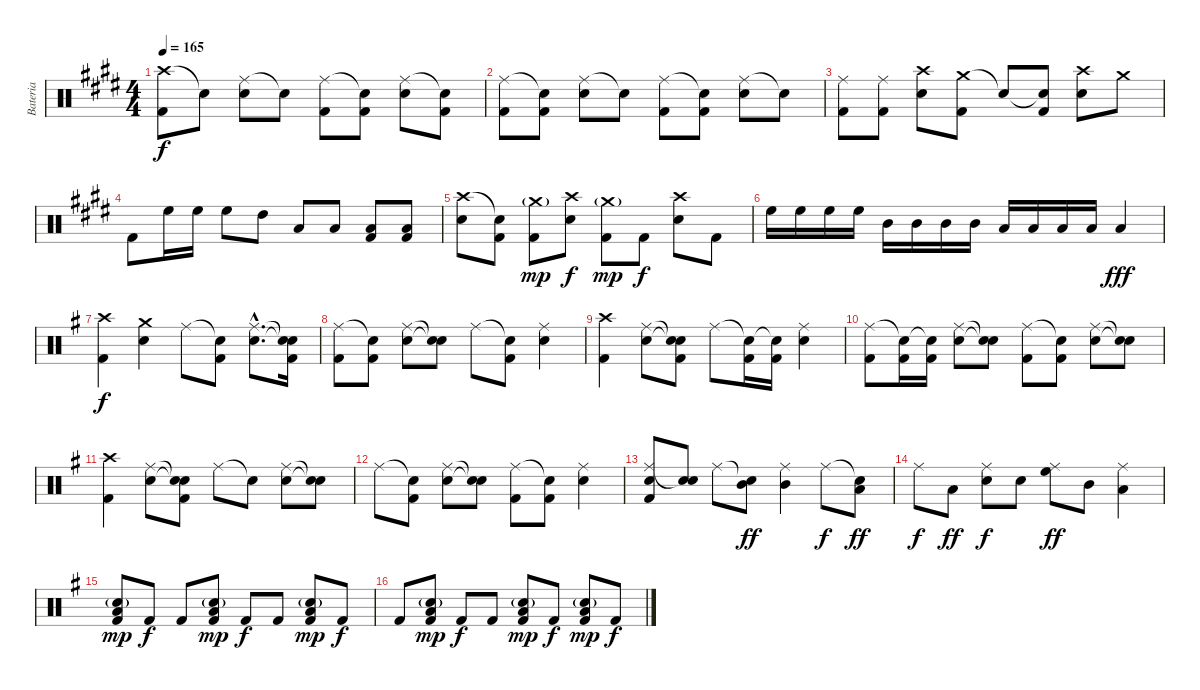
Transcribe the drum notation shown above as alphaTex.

\track ("Bateria" "Bateria") {instrument percussion}
\staff {score}
\articulation defaults
\ts (4 4)
\tempo 165
\clef neutral
\ks e
("Crash high (hit)" "Kick (hit) 2").8{dy f} "Snare (hit)"{t}.8 ("Ride (middle)" "Electric Snare (hit)").8 "Snare (hit)"{t}.8 ("Ride (middle)" "Kick (hit) 2").8 ("Snare (hit)"{t} "Kick (hit) 2").8 ("Ride (middle)" "Electric Snare (hit)").8 ("Snare (hit)"{t} "Kick (hit) 2").8 |
("Ride (middle)" "Kick (hit) 2").8 ("Snare (hit)"{t} "Kick (hit) 2").8 ("Ride (middle)" "Electric Snare (hit)").8 "Snare (hit)"{t}.8 ("Ride (middle)" "Kick (hit) 2").8 ("Snare (hit)"{t} "Kick (hit) 2").8 ("Ride (middle)" "Electric Snare (hit)").8 "Snare (hit)"{t}.8 |
("Ride (middle)" "Kick (hit) 2").8 ("Ride (middle)" "Kick (hit) 2").8 ("Crash high (hit)" "Electric Snare (hit)").8 ("Crash medium (hit)" "Kick (hit) 2").8 "Snare (hit)"{t}.8 ("Snare (hit)"{t} "Kick (hit) 2").8 ("Crash high (hit)" "Electric Snare (hit)").8 "Crash medium (hit)".8 |
"Kick (hit) 2".8 "High Floor Tom (hit)".16 "High Floor Tom (hit)".16 "High Floor Tom (hit)".8 "High Tom (hit)".8 "Low Tom (hit)".8 "Low Tom (hit)".8 ("Low Floor Tom (hit)" "Kick (hit) 2").8 ("Low Floor Tom (hit)" "Kick (hit) 2").8 |
("Crash high (hit)" "Electric Snare (hit)").8 ("Snare (hit)"{t} "Kick (hit) 2").8 ("Crash medium (hit)"{g} "Kick (hit) 2").8{dy mp} ("Crash high (hit)" "Electric Snare (hit)").8{dy f} ("Crash medium (hit)"{g} "Kick (hit) 2").8{dy mp} "Kick (hit) 2".8{dy f} ("Crash high (hit)" "Electric Snare (hit)").8 "Kick (hit) 2".8 |
"High Floor Tom (hit)".16 "High Floor Tom (hit)".16 "High Floor Tom (hit)".16 "High Floor Tom (hit)".16 "Mid Tom (hit)".16 "Mid Tom (hit)".16 "Mid Tom (hit)".16 "Mid Tom (hit)".16 "Low Tom (hit)".16 "Low Tom (hit)".16 "Low Tom (hit)".16 "Low Tom (hit)".16 "Low Floor Tom (hit)".4{dy fff} |
\ks g
("Crash high (hit)" "Kick (hit) 2").4{dy f} ("Crash medium (hit)" "Electric Snare (hit)").4 "Ride (middle)".8 ("Snare (hit)"{t} "Kick (hit) 2").8 ("Ride (middle)"{hac} "Electric Snare (hit)"{hac}).8{d} ("Snare (hit)"{t} "Snare (hit)"{t} "Kick (hit) 2").16 |
("Ride (middle)" "Kick (hit) 2").8 ("Snare (hit)"{t} "Kick (hit) 2").8 ("Ride (middle)" "Electric Snare (hit)").8 ("Snare (hit)"{t} "Snare (hit)"{t}).8 "Ride (middle)".8 ("Snare (hit)"{t} "Kick (hit) 2").8 ("Ride (middle)" "Electric Snare (hit)").4 |
("Crash high (hit)" "Kick (hit) 2").4 ("Ride (middle)" "Electric Snare (hit)").8 ("Snare (hit)"{t} "Snare (hit)"{t} "Kick (hit) 2").8 "Ride (middle)".8 ("Snare (hit)"{t} "Kick (hit) 2").16 ("Snare (hit)"{t} "Kick (hit) 2").16 ("Ride (middle)" "Electric Snare (hit)").4 |
("Ride (middle)" "Kick (hit) 2").8 ("Snare (hit)"{t} "Kick (hit) 2").16 ("Snare (hit)"{t} "Kick (hit) 2").16 ("Ride (middle)" "Electric Snare (hit)").8 ("Snare (hit)"{t} "Snare (hit)"{t}).8 ("Ride (middle)" "Kick (hit) 2").8 ("Snare (hit)"{t} "Kick (hit) 2").8 ("Ride (middle)" "Electric Snare (hit)").8 ("Snare (hit)"{t} "Snare (hit)"{t}).8 |
("Crash high (hit)" "Kick (hit) 2").4 ("Ride (middle)" "Electric Snare (hit)").8 ("Snare (hit)"{t} "Snare (hit)"{t} "Kick (hit) 2").8 "Ride (middle)".8 "Snare (hit)"{t}.8 ("Ride (middle)" "Electric Snare (hit)").8 ("Snare (hit)"{t} "Snare (hit)"{t}).8 |
"Ride (middle)".8 ("Snare (hit)"{t} "Kick (hit) 2").8 ("Ride (middle)" "Electric Snare (hit)").8 ("Snare (hit)"{t} "Snare (hit)"{t}).8 ("Ride (middle)" "Kick (hit) 2").8 ("Snare (hit)"{t} "Kick (hit) 2").8 ("Ride (middle)" "Electric Snare (hit)").4 |
("Ride (middle)" "Electric Snare (hit)" "Kick (hit) 2").8 ("Snare (hit)"{t} "Electric Snare (hit)").8 "Ride (middle)".8 ("Snare (hit)"{t} "Mid Tom (hit)").8{dy ff} ("Ride (middle)" "Mid Tom (hit)").4 "Ride (middle)".8{dy f} ("Snare (hit)"{t} "Low Tom (hit)").8{dy ff} |
"Ride (middle)".8{dy f} "Low Tom (hit)".8{dy ff} ("Ride (middle)" "Electric Snare (hit)").8{dy f} "Electric Snare (hit)".8 ("Ride (middle)" "High Floor Tom (hit)").8{dy ff} "Mid Tom (hit)".8 ("Ride (middle)" "Low Tom (hit)").4 |
("Electric Snare (hit)"{g} "Low Tom (hit)" "Kick (hit) 2").8{dy mp} "Kick (hit) 2".8{dy f} "Kick (hit) 2".8 ("Electric Snare (hit)"{g} "Low Tom (hit)" "Kick (hit) 2").8{dy mp} "Kick (hit) 2".8{dy f} "Kick (hit) 2".8 ("Electric Snare (hit)"{g} "Low Tom (hit)" "Kick (hit) 2").8{dy mp} "Kick (hit) 2".8{dy f} |
"Kick (hit) 2".8 ("Electric Snare (hit)"{g} "Low Tom (hit)" "Kick (hit) 2").8{dy mp} "Kick (hit) 2".8{dy f} "Kick (hit) 2".8 ("Electric Snare (hit)"{g} "Low Tom (hit)" "Kick (hit) 2").8{dy mp} "Kick (hit) 2".8{dy f} ("Electric Snare (hit)"{g} "Low Tom (hit)" "Kick (hit) 2").8{dy mp} "Kick (hit) 2".8{dy f}
